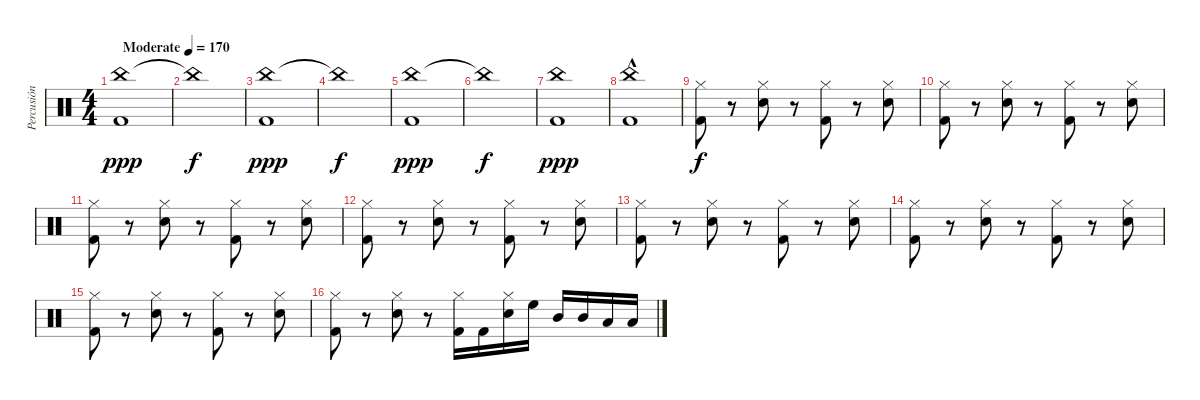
\track ("Percusión" "Percusión") {instrument percussion}
\staff {score}
\articulation defaults
\ts (4 4)
\tempo (170 "Moderate")
\clef neutral
\ks c
("China (hit)" "Kick (hit) 2").1{dy ppp} |
"China (hit)"{t}.1{dy f} |
("China (hit)" "Kick (hit) 2").1{dy ppp} |
"China (hit)"{t}.1{dy f} |
("China (hit)" "Kick (hit) 2").1{dy ppp} |
"China (hit)"{t}.1{dy f} |
("China (hit)" "Kick (hit) 2").1{dy ppp} |
("China (hit)"{hac} "Kick (hit) 2").1 |
("Hi-Hat (closed)" "Kick (hit) 2").8{dy f} r.8 ("Hi-Hat (closed)" "Electric Snare (hit)").8 r.8 ("Hi-Hat (closed)" "Kick (hit) 2").8 r.8 ("Hi-Hat (closed)" "Electric Snare (hit)").8 |
("Hi-Hat (closed)" "Kick (hit) 2").8 r.8 ("Hi-Hat (closed)" "Electric Snare (hit)").8 r.8 ("Hi-Hat (closed)" "Kick (hit) 2").8 r.8 ("Hi-Hat (closed)" "Electric Snare (hit)").8 |
("Hi-Hat (closed)" "Kick (hit) 2").8 r.8 ("Hi-Hat (closed)" "Electric Snare (hit)").8 r.8 ("Hi-Hat (closed)" "Kick (hit) 2").8 r.8 ("Hi-Hat (closed)" "Electric Snare (hit)").8 |
("Hi-Hat (closed)" "Kick (hit) 2").8 r.8 ("Hi-Hat (closed)" "Electric Snare (hit)").8 r.8 ("Hi-Hat (closed)" "Kick (hit) 2").8 r.8 ("Hi-Hat (closed)" "Electric Snare (hit)").8 |
("Hi-Hat (closed)" "Kick (hit) 2").8 r.8 ("Hi-Hat (closed)" "Electric Snare (hit)").8 r.8 ("Hi-Hat (closed)" "Kick (hit) 2").8 r.8 ("Hi-Hat (closed)" "Electric Snare (hit)").8 |
("Hi-Hat (closed)" "Kick (hit) 2").8 r.8 ("Hi-Hat (closed)" "Electric Snare (hit)").8 r.8 ("Hi-Hat (closed)" "Kick (hit) 2").8 r.8 ("Hi-Hat (closed)" "Electric Snare (hit)").8 |
("Hi-Hat (closed)" "Kick (hit) 2").8 r.8 ("Hi-Hat (closed)" "Electric Snare (hit)").8 r.8 ("Hi-Hat (closed)" "Kick (hit) 2").8 r.8 ("Hi-Hat (closed)" "Electric Snare (hit)").8 |
("Hi-Hat (closed)" "Kick (hit) 2").8 r.8 ("Hi-Hat (closed)" "Electric Snare (hit)").8 r.8 ("Hi-Hat (closed)" "Kick (hit) 2").16 "Kick (hit) 2".16 ("Hi-Hat (closed)" "Electric Snare (hit)").16 "High Floor Tom (hit)".16 "Mid Tom (hit)".16 "Mid Tom (hit)".16 "Low Tom (hit)".16 "Low Floor Tom (hit)".16
